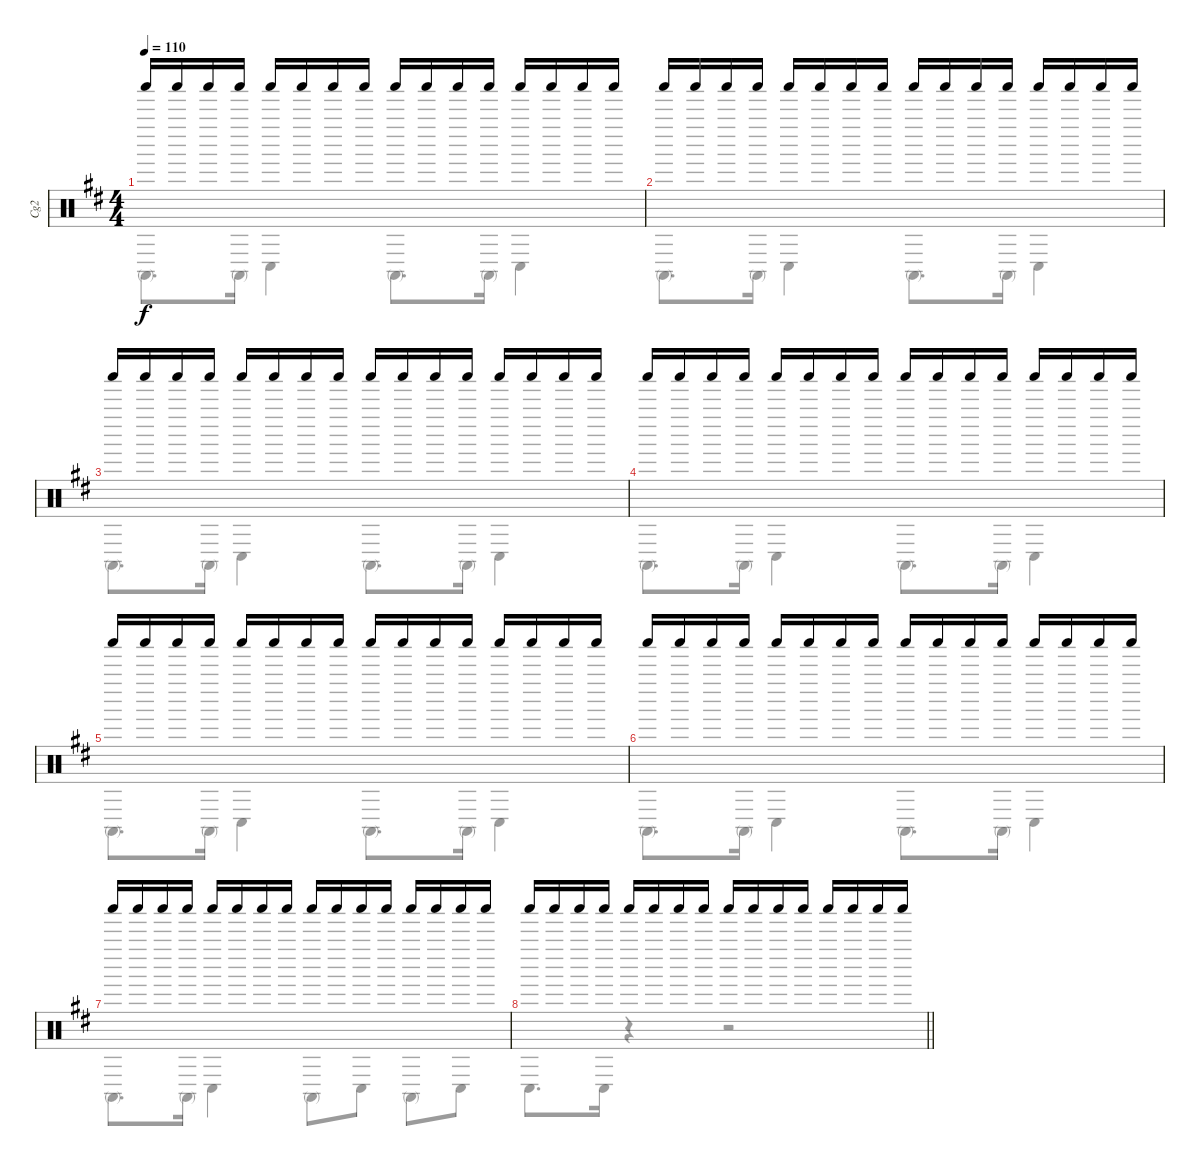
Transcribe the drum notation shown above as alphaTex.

\track ("Cg2" "Cg2") {instrument percussion}
\staff {score}
\articulation defaults
\voice
\ts (4 4)
\tempo 110
\clef neutral
\ks d "Shaker (hit)".16{dy f} "Shaker (hit)".16 "Shaker (hit)".16 "Shaker (hit)".16 "Shaker (hit)".16 "Shaker (hit)".16 "Shaker (hit)".16 "Shaker (hit)".16 "Shaker (hit)".16 "Shaker (hit)".16 "Shaker (hit)".16 "Shaker (hit)".16 "Shaker (hit)".16 "Shaker (hit)".16 "Shaker (hit)".16 "Shaker (hit)".16
|
"Shaker (hit)".16 "Shaker (hit)".16 "Shaker (hit)".16 "Shaker (hit)".16 "Shaker (hit)".16 "Shaker (hit)".16 "Shaker (hit)".16 "Shaker (hit)".16 "Shaker (hit)".16 "Shaker (hit)".16 "Shaker (hit)".16 "Shaker (hit)".16 "Shaker (hit)".16 "Shaker (hit)".16 "Shaker (hit)".16 "Shaker (hit)".16 |
"Shaker (hit)".16 "Shaker (hit)".16 "Shaker (hit)".16 "Shaker (hit)".16 "Shaker (hit)".16 "Shaker (hit)".16 "Shaker (hit)".16 "Shaker (hit)".16 "Shaker (hit)".16 "Shaker (hit)".16 "Shaker (hit)".16 "Shaker (hit)".16 "Shaker (hit)".16 "Shaker (hit)".16 "Shaker (hit)".16 "Shaker (hit)".16 |
"Shaker (hit)".16 "Shaker (hit)".16 "Shaker (hit)".16 "Shaker (hit)".16 "Shaker (hit)".16 "Shaker (hit)".16 "Shaker (hit)".16 "Shaker (hit)".16 "Shaker (hit)".16 "Shaker (hit)".16 "Shaker (hit)".16 "Shaker (hit)".16 "Shaker (hit)".16 "Shaker (hit)".16 "Shaker (hit)".16 "Shaker (hit)".16 |
"Shaker (hit)".16 "Shaker (hit)".16 "Shaker (hit)".16 "Shaker (hit)".16 "Shaker (hit)".16 "Shaker (hit)".16 "Shaker (hit)".16 "Shaker (hit)".16 "Shaker (hit)".16 "Shaker (hit)".16 "Shaker (hit)".16 "Shaker (hit)".16 "Shaker (hit)".16 "Shaker (hit)".16 "Shaker (hit)".16 "Shaker (hit)".16 |
"Shaker (hit)".16 "Shaker (hit)".16 "Shaker (hit)".16 "Shaker (hit)".16 "Shaker (hit)".16 "Shaker (hit)".16 "Shaker (hit)".16 "Shaker (hit)".16 "Shaker (hit)".16 "Shaker (hit)".16 "Shaker (hit)".16 "Shaker (hit)".16 "Shaker (hit)".16 "Shaker (hit)".16 "Shaker (hit)".16 "Shaker (hit)".16 |
"Shaker (hit)".16 "Shaker (hit)".16 "Shaker (hit)".16 "Shaker (hit)".16 "Shaker (hit)".16 "Shaker (hit)".16 "Shaker (hit)".16 "Shaker (hit)".16 "Shaker (hit)".16 "Shaker (hit)".16 "Shaker (hit)".16 "Shaker (hit)".16 "Shaker (hit)".16 "Shaker (hit)".16 "Shaker (hit)".16 "Shaker (hit)".16 |
\barLineRight lightlight "Shaker (hit)".16 "Shaker (hit)".16 "Shaker (hit)".16 "Shaker (hit)".16 "Shaker (hit)".16 "Shaker (hit)".16 "Shaker (hit)".16 "Shaker (hit)".16 "Shaker (hit)".16 "Shaker (hit)".16 "Shaker (hit)".16 "Shaker (hit)".16 "Shaker (hit)".16 "Shaker (hit)".16 "Shaker (hit)".16 "Shaker (hit)".16
\voice
\clef neutral
\ottava regular
\simile none
\ks d "Conga high (mute)".8{d dy f} "Conga high (mute)".16 "Conga low (hit)".4 "Conga high (mute)".8{d} "Conga high (mute)".16 "Conga low (hit)".4
|
"Conga high (mute)".8{d} "Conga high (mute)".16 "Conga low (hit)".4 "Conga high (mute)".8{d} "Conga high (mute)".16 "Conga low (hit)".4 |
"Conga high (mute)".8{d} "Conga high (mute)".16 "Conga low (hit)".4 "Conga high (mute)".8{d} "Conga high (mute)".16 "Conga low (hit)".4 |
"Conga high (mute)".8{d} "Conga high (mute)".16 "Conga low (hit)".4 "Conga high (mute)".8{d} "Conga high (mute)".16 "Conga low (hit)".4 |
"Conga high (mute)".8{d} "Conga high (mute)".16 "Conga low (hit)".4 "Conga high (mute)".8{d} "Conga high (mute)".16 "Conga low (hit)".4 |
"Conga high (mute)".8{d} "Conga high (mute)".16 "Conga low (hit)".4 "Conga high (mute)".8{d} "Conga high (mute)".16 "Conga low (hit)".4 |
"Conga high (mute)".8{d} "Conga high (mute)".16 "Conga low (hit)".4 "Conga high (mute)".8 "Conga low (hit)".8 "Conga high (mute)".8 "Conga low (hit)".8 |
\barLineRight lightlight "Conga low (hit)".8{d} "Conga low (hit)".16
r.4 r.2
